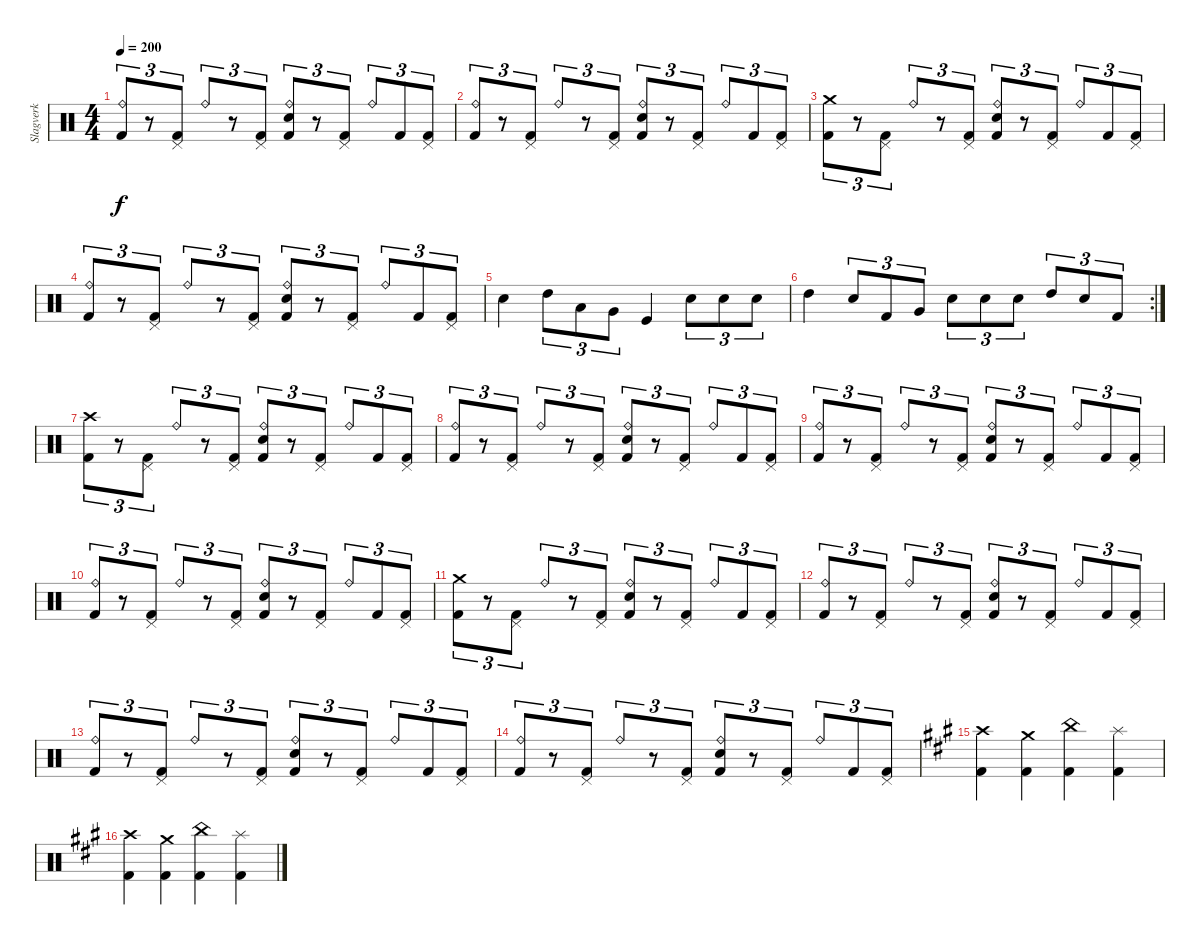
\track ("Slagverk" "Slagverk") {instrument percussion}
\staff {score}
\articulation defaults
\ts (4 4)
\tempo 200
\clef neutral
\ks c
("Ride (bell)" "Kick (hit) 2").8{tu (3 2) dy f} r.8{tu (3 2)} ("Pedal Hi-Hat (hit)" "Kick (hit) 2").8{tu (3 2)} "Ride (bell)".8{tu (3 2)} r.8{tu (3 2)} ("Pedal Hi-Hat (hit)" "Kick (hit) 2").8{tu (3 2)} ("Ride (bell)" "Snare (hit) 2" "Kick (hit) 2").8{tu (3 2)} r.8{tu (3 2)} ("Pedal Hi-Hat (hit)" "Kick (hit) 2").8{tu (3 2)} "Ride (bell)".8{tu (3 2)} "Kick (hit) 2".8{tu (3 2)} ("Pedal Hi-Hat (hit)" "Kick (hit) 2").8{tu (3 2)} |
("Ride (bell)" "Kick (hit) 2").8{tu (3 2)} r.8{tu (3 2)} ("Pedal Hi-Hat (hit)" "Kick (hit) 2").8{tu (3 2)} "Ride (bell)".8{tu (3 2)} r.8{tu (3 2)} ("Pedal Hi-Hat (hit)" "Kick (hit) 2").8{tu (3 2)} ("Ride (bell)" "Snare (hit) 2" "Kick (hit) 2").8{tu (3 2)} r.8{tu (3 2)} ("Pedal Hi-Hat (hit)" "Kick (hit) 2").8{tu (3 2)} "Ride (bell)".8{tu (3 2)} "Kick (hit) 2".8{tu (3 2)} ("Pedal Hi-Hat (hit)" "Kick (hit) 2").8{tu (3 2)} |
("Crash medium (hit)" "Kick (hit) 2").8{tu (3 2)} r.8{tu (3 2)} ("Pedal Hi-Hat (hit)" "Kick (hit) 2").8{tu (3 2)} "Ride (bell)".8{tu (3 2)} r.8{tu (3 2)} ("Pedal Hi-Hat (hit)" "Kick (hit) 2").8{tu (3 2)} ("Ride (bell)" "Snare (hit) 2" "Kick (hit) 2").8{tu (3 2)} r.8{tu (3 2)} ("Pedal Hi-Hat (hit)" "Kick (hit) 2").8{tu (3 2)} "Ride (bell)".8{tu (3 2)} "Kick (hit) 2".8{tu (3 2)} ("Pedal Hi-Hat (hit)" "Kick (hit) 2").8{tu (3 2)} |
("Ride (bell)" "Kick (hit) 2").8{tu (3 2)} r.8{tu (3 2)} ("Pedal Hi-Hat (hit)" "Kick (hit) 2").8{tu (3 2)} "Ride (bell)".8{tu (3 2)} r.8{tu (3 2)} ("Pedal Hi-Hat (hit)" "Kick (hit) 2").8{tu (3 2)} ("Ride (bell)" "Snare (hit) 2" "Kick (hit) 2").8{tu (3 2)} r.8{tu (3 2)} ("Pedal Hi-Hat (hit)" "Kick (hit) 2").8{tu (3 2)} "Ride (bell)".8{tu (3 2)} "Kick (hit) 2".8{tu (3 2)} ("Pedal Hi-Hat (hit)" "Kick (hit) 2").8{tu (3 2)} |
"Snare (hit) 2".4 "High Tom (hit)".8{tu (3 2)} "Low Tom (hit)".8{tu (3 2)} "Very Low Tom (hit)".8{tu (3 2)} "Kick (hit)".4 "Snare (hit) 2".8{tu (3 2)} "Snare (hit) 2".8{tu (3 2)} "Snare (hit) 2".8{tu (3 2)} |
\rc 2 "High Tom (hit)".4 "Snare (hit) 2".8{tu (3 2)} "Kick (hit) 2".8{tu (3 2)} "Very Low Tom (hit)".8{tu (3 2)} "Snare (hit) 2".8{tu (3 2)} "Snare (hit) 2".8{tu (3 2)} "Snare (hit) 2".8{tu (3 2)} "High Tom (hit)".8{tu (3 2)} "Snare (hit) 2".8{tu (3 2)} "Kick (hit) 2".8{tu (3 2)}
|
("Crash high (hit)" "Kick (hit) 2").8{tu (3 2)} r.8{tu (3 2)} ("Pedal Hi-Hat (hit)" "Kick (hit) 2").8{tu (3 2)} "Ride (bell)".8{tu (3 2)} r.8{tu (3 2)} ("Pedal Hi-Hat (hit)" "Kick (hit) 2").8{tu (3 2)} ("Ride (bell)" "Snare (hit) 2" "Kick (hit) 2").8{tu (3 2)} r.8{tu (3 2)} ("Pedal Hi-Hat (hit)" "Kick (hit) 2").8{tu (3 2)} "Ride (bell)".8{tu (3 2)} "Kick (hit) 2".8{tu (3 2)} ("Pedal Hi-Hat (hit)" "Kick (hit) 2").8{tu (3 2)} |
("Ride (bell)" "Kick (hit) 2").8{tu (3 2)} r.8{tu (3 2)} ("Pedal Hi-Hat (hit)" "Kick (hit) 2").8{tu (3 2)} "Ride (bell)".8{tu (3 2)} r.8{tu (3 2)} ("Pedal Hi-Hat (hit)" "Kick (hit) 2").8{tu (3 2)} ("Ride (bell)" "Snare (hit) 2" "Kick (hit) 2").8{tu (3 2)} r.8{tu (3 2)} ("Pedal Hi-Hat (hit)" "Kick (hit) 2").8{tu (3 2)} "Ride (bell)".8{tu (3 2)} "Kick (hit) 2".8{tu (3 2)} ("Pedal Hi-Hat (hit)" "Kick (hit) 2").8{tu (3 2)} |
("Ride (bell)" "Kick (hit) 2").8{tu (3 2)} r.8{tu (3 2)} ("Pedal Hi-Hat (hit)" "Kick (hit) 2").8{tu (3 2)} "Ride (bell)".8{tu (3 2)} r.8{tu (3 2)} ("Pedal Hi-Hat (hit)" "Kick (hit) 2").8{tu (3 2)} ("Ride (bell)" "Snare (hit) 2" "Kick (hit) 2").8{tu (3 2)} r.8{tu (3 2)} ("Pedal Hi-Hat (hit)" "Kick (hit) 2").8{tu (3 2)} "Ride (bell)".8{tu (3 2)} "Kick (hit) 2".8{tu (3 2)} ("Pedal Hi-Hat (hit)" "Kick (hit) 2").8{tu (3 2)} |
("Ride (bell)" "Kick (hit) 2").8{tu (3 2)} r.8{tu (3 2)} ("Pedal Hi-Hat (hit)" "Kick (hit) 2").8{tu (3 2)} "Ride (bell)".8{tu (3 2)} r.8{tu (3 2)} ("Pedal Hi-Hat (hit)" "Kick (hit) 2").8{tu (3 2)} ("Ride (bell)" "Snare (hit) 2" "Kick (hit) 2").8{tu (3 2)} r.8{tu (3 2)} ("Pedal Hi-Hat (hit)" "Kick (hit) 2").8{tu (3 2)} "Ride (bell)".8{tu (3 2)} "Kick (hit) 2".8{tu (3 2)} ("Pedal Hi-Hat (hit)" "Kick (hit) 2").8{tu (3 2)} |
("Crash medium (hit)" "Kick (hit) 2").8{tu (3 2)} r.8{tu (3 2)} ("Pedal Hi-Hat (hit)" "Kick (hit) 2").8{tu (3 2)} "Ride (bell)".8{tu (3 2)} r.8{tu (3 2)} ("Pedal Hi-Hat (hit)" "Kick (hit) 2").8{tu (3 2)} ("Ride (bell)" "Snare (hit) 2" "Kick (hit) 2").8{tu (3 2)} r.8{tu (3 2)} ("Pedal Hi-Hat (hit)" "Kick (hit) 2").8{tu (3 2)} "Ride (bell)".8{tu (3 2)} "Kick (hit) 2".8{tu (3 2)} ("Pedal Hi-Hat (hit)" "Kick (hit) 2").8{tu (3 2)} |
("Ride (bell)" "Kick (hit) 2").8{tu (3 2)} r.8{tu (3 2)} ("Pedal Hi-Hat (hit)" "Kick (hit) 2").8{tu (3 2)} "Ride (bell)".8{tu (3 2)} r.8{tu (3 2)} ("Pedal Hi-Hat (hit)" "Kick (hit) 2").8{tu (3 2)} ("Ride (bell)" "Snare (hit) 2" "Kick (hit) 2").8{tu (3 2)} r.8{tu (3 2)} ("Pedal Hi-Hat (hit)" "Kick (hit) 2").8{tu (3 2)} "Ride (bell)".8{tu (3 2)} "Kick (hit) 2".8{tu (3 2)} ("Pedal Hi-Hat (hit)" "Kick (hit) 2").8{tu (3 2)} |
("Ride (bell)" "Kick (hit) 2").8{tu (3 2)} r.8{tu (3 2)} ("Pedal Hi-Hat (hit)" "Kick (hit) 2").8{tu (3 2)} "Ride (bell)".8{tu (3 2)} r.8{tu (3 2)} ("Pedal Hi-Hat (hit)" "Kick (hit) 2").8{tu (3 2)} ("Ride (bell)" "Snare (hit) 2" "Kick (hit) 2").8{tu (3 2)} r.8{tu (3 2)} ("Pedal Hi-Hat (hit)" "Kick (hit) 2").8{tu (3 2)} "Ride (bell)".8{tu (3 2)} "Kick (hit) 2".8{tu (3 2)} ("Pedal Hi-Hat (hit)" "Kick (hit) 2").8{tu (3 2)} |
("Ride (bell)" "Kick (hit) 2").8{tu (3 2)} r.8{tu (3 2)} ("Pedal Hi-Hat (hit)" "Kick (hit) 2").8{tu (3 2)} "Ride (bell)".8{tu (3 2)} r.8{tu (3 2)} ("Pedal Hi-Hat (hit)" "Kick (hit) 2").8{tu (3 2)} ("Ride (bell)" "Snare (hit) 2" "Kick (hit) 2").8{tu (3 2)} r.8{tu (3 2)} ("Pedal Hi-Hat (hit)" "Kick (hit) 2").8{tu (3 2)} "Ride (bell)".8{tu (3 2)} "Kick (hit) 2".8{tu (3 2)} ("Pedal Hi-Hat (hit)" "Kick (hit) 2").8{tu (3 2)} |
\ks a
("Crash high (hit)" "Kick (hit) 2").4 ("Crash medium (hit)" "Kick (hit) 2").4 ("China (hit)" "Kick (hit) 2").4 ("Splash (hit)" "Kick (hit) 2").4 |
("Crash high (hit)" "Kick (hit) 2").4 ("Crash medium (hit)" "Kick (hit) 2").4 ("China (hit)" "Kick (hit) 2").4 ("Splash (hit)" "Kick (hit) 2").4
